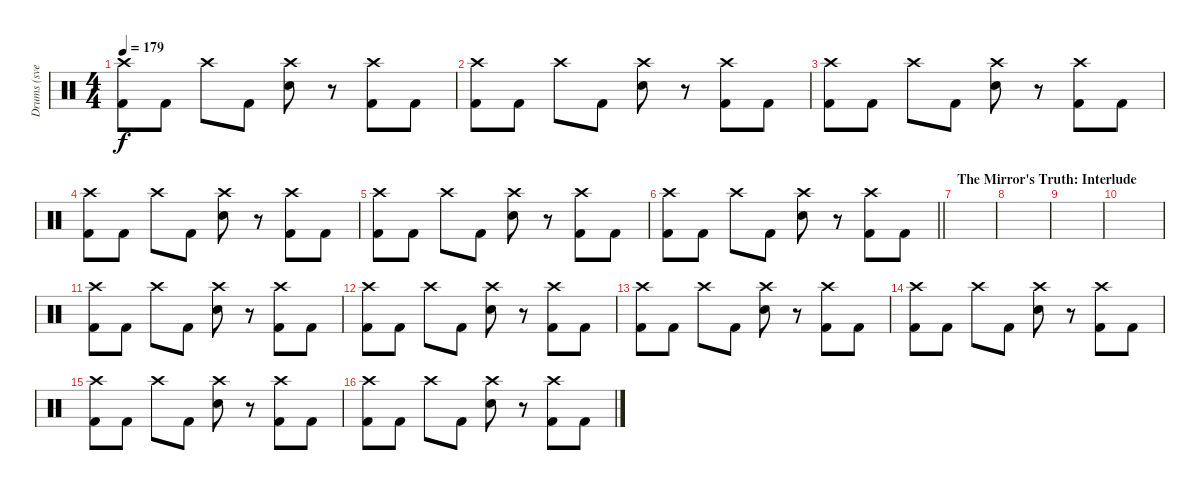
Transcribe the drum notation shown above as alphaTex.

\track ("Drums (svelle)" "Drums (sve") {instrument percussion}
\staff {score}
\articulation defaults
\ts (4 4)
\tempo 179
\clef neutral
\ks c
("Crash high (hit)" "Kick (hit) 2").8{dy f} "Kick (hit) 2".8 "Crash high (hit)".8 "Kick (hit) 2".8 ("Crash high (hit)" "Electric Snare (hit)").8 r.8 ("Crash high (hit)" "Kick (hit) 2").8 "Kick (hit) 2".8 |
("Crash high (hit)" "Kick (hit) 2").8 "Kick (hit) 2".8 "Crash high (hit)".8 "Kick (hit) 2".8 ("Crash high (hit)" "Electric Snare (hit)").8 r.8 ("Crash high (hit)" "Kick (hit) 2").8 "Kick (hit) 2".8 |
("Crash high (hit)" "Kick (hit) 2").8 "Kick (hit) 2".8 "Crash high (hit)".8 "Kick (hit) 2".8 ("Crash high (hit)" "Electric Snare (hit)").8 r.8 ("Crash high (hit)" "Kick (hit) 2").8 "Kick (hit) 2".8 |
("Crash high (hit)" "Kick (hit) 2").8 "Kick (hit) 2".8 "Crash high (hit)".8 "Kick (hit) 2".8 ("Crash high (hit)" "Electric Snare (hit)").8 r.8 ("Crash high (hit)" "Kick (hit) 2").8 "Kick (hit) 2".8 |
("Crash high (hit)" "Kick (hit) 2").8 "Kick (hit) 2".8 "Crash high (hit)".8 "Kick (hit) 2".8 ("Crash high (hit)" "Electric Snare (hit)").8 r.8 ("Crash high (hit)" "Kick (hit) 2").8 "Kick (hit) 2".8 |
\barLineRight lightlight
("Crash high (hit)" "Kick (hit) 2").8 "Kick (hit) 2".8 "Crash high (hit)".8 "Kick (hit) 2".8 ("Crash high (hit)" "Electric Snare (hit)").8 r.8 ("Crash high (hit)" "Kick (hit) 2").8 "Kick (hit) 2".8 |
\section ("" "The Mirror's Truth: Interlude")
|
|
|
|
("Crash high (hit)" "Kick (hit) 2").8 "Kick (hit) 2".8 "Crash high (hit)".8 "Kick (hit) 2".8 ("Crash high (hit)" "Electric Snare (hit)").8 r.8 ("Crash high (hit)" "Kick (hit) 2").8 "Kick (hit) 2".8 |
("Crash high (hit)" "Kick (hit) 2").8 "Kick (hit) 2".8 "Crash high (hit)".8 "Kick (hit) 2".8 ("Crash high (hit)" "Electric Snare (hit)").8 r.8 ("Crash high (hit)" "Kick (hit) 2").8 "Kick (hit) 2".8 |
("Crash high (hit)" "Kick (hit) 2").8 "Kick (hit) 2".8 "Crash high (hit)".8 "Kick (hit) 2".8 ("Crash high (hit)" "Electric Snare (hit)").8 r.8 ("Crash high (hit)" "Kick (hit) 2").8 "Kick (hit) 2".8 |
("Crash high (hit)" "Kick (hit) 2").8 "Kick (hit) 2".8 "Crash high (hit)".8 "Kick (hit) 2".8 ("Crash high (hit)" "Electric Snare (hit)").8 r.8 ("Crash high (hit)" "Kick (hit) 2").8 "Kick (hit) 2".8 |
("Crash high (hit)" "Kick (hit) 2").8 "Kick (hit) 2".8 "Crash high (hit)".8 "Kick (hit) 2".8 ("Crash high (hit)" "Electric Snare (hit)").8 r.8 ("Crash high (hit)" "Kick (hit) 2").8 "Kick (hit) 2".8 |
("Crash high (hit)" "Kick (hit) 2").8 "Kick (hit) 2".8 "Crash high (hit)".8 "Kick (hit) 2".8 ("Crash high (hit)" "Electric Snare (hit)").8 r.8 ("Crash high (hit)" "Kick (hit) 2").8 "Kick (hit) 2".8
